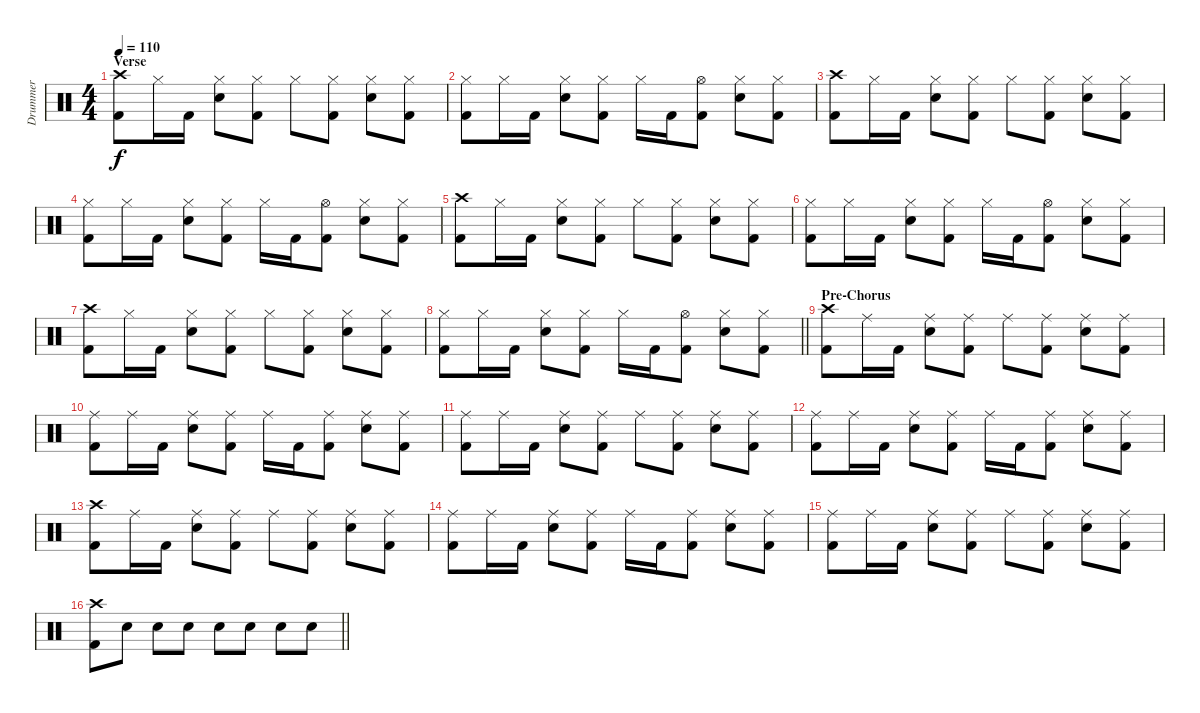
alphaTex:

\track ("Drummer" "Drummer") {instrument percussion}
\staff {score}
\articulation defaults
\ts (4 4)
\section ("" "Verse")
\tempo 110
\clef neutral
\ks c
("Crash high (hit)" "Kick (hit) 2").8{dy f} "Hi-Hat (closed)".16 "Kick (hit) 2".16 ("Hi-Hat (closed)" "Electric Snare (hit)").8 ("Hi-Hat (closed)" "Kick (hit) 2").8 "Hi-Hat (closed)".8 ("Hi-Hat (closed)" "Kick (hit) 2").8 ("Hi-Hat (closed)" "Electric Snare (hit)").8 ("Hi-Hat (closed)" "Kick (hit) 2").8 |
("Hi-Hat (closed)" "Kick (hit) 2").8 "Hi-Hat (closed)".16 "Kick (hit) 2".16 ("Hi-Hat (closed)" "Electric Snare (hit)").8 ("Hi-Hat (closed)" "Kick (hit) 2").8 "Hi-Hat (closed)".16 "Kick (hit) 2".16 ("Hi-Hat (open)" "Kick (hit) 2").8 ("Hi-Hat (closed)" "Electric Snare (hit)").8 ("Hi-Hat (closed)" "Kick (hit) 2").8 |
("Crash high (hit)" "Kick (hit) 2").8 "Hi-Hat (closed)".16 "Kick (hit) 2".16 ("Hi-Hat (closed)" "Electric Snare (hit)").8 ("Hi-Hat (closed)" "Kick (hit) 2").8 "Hi-Hat (closed)".8 ("Hi-Hat (closed)" "Kick (hit) 2").8 ("Hi-Hat (closed)" "Electric Snare (hit)").8 ("Hi-Hat (closed)" "Kick (hit) 2").8 |
("Hi-Hat (closed)" "Kick (hit) 2").8 "Hi-Hat (closed)".16 "Kick (hit) 2".16 ("Hi-Hat (closed)" "Electric Snare (hit)").8 ("Hi-Hat (closed)" "Kick (hit) 2").8 "Hi-Hat (closed)".16 "Kick (hit) 2".16 ("Hi-Hat (open)" "Kick (hit) 2").8 ("Hi-Hat (closed)" "Electric Snare (hit)").8 ("Hi-Hat (closed)" "Kick (hit) 2").8 |
("Crash high (hit)" "Kick (hit) 2").8 "Hi-Hat (closed)".16 "Kick (hit) 2".16 ("Hi-Hat (closed)" "Electric Snare (hit)").8 ("Hi-Hat (closed)" "Kick (hit) 2").8 "Hi-Hat (closed)".8 ("Hi-Hat (closed)" "Kick (hit) 2").8 ("Hi-Hat (closed)" "Electric Snare (hit)").8 ("Hi-Hat (closed)" "Kick (hit) 2").8 |
("Hi-Hat (closed)" "Kick (hit) 2").8 "Hi-Hat (closed)".16 "Kick (hit) 2".16 ("Hi-Hat (closed)" "Electric Snare (hit)").8 ("Hi-Hat (closed)" "Kick (hit) 2").8 "Hi-Hat (closed)".16 "Kick (hit) 2".16 ("Hi-Hat (open)" "Kick (hit) 2").8 ("Hi-Hat (closed)" "Electric Snare (hit)").8 ("Hi-Hat (closed)" "Kick (hit) 2").8 |
("Crash high (hit)" "Kick (hit) 2").8 "Hi-Hat (closed)".16 "Kick (hit) 2".16 ("Hi-Hat (closed)" "Electric Snare (hit)").8 ("Hi-Hat (closed)" "Kick (hit) 2").8 "Hi-Hat (closed)".8 ("Hi-Hat (closed)" "Kick (hit) 2").8 ("Hi-Hat (closed)" "Electric Snare (hit)").8 ("Hi-Hat (closed)" "Kick (hit) 2").8 |
\barLineRight lightlight
("Hi-Hat (closed)" "Kick (hit) 2").8 "Hi-Hat (closed)".16 "Kick (hit) 2".16 ("Hi-Hat (closed)" "Electric Snare (hit)").8 ("Hi-Hat (closed)" "Kick (hit) 2").8 "Hi-Hat (closed)".16 "Kick (hit) 2".16 ("Hi-Hat (open)" "Kick (hit) 2").8 ("Hi-Hat (closed)" "Electric Snare (hit)").8 ("Hi-Hat (closed)" "Kick (hit) 2").8 |
\section ("" "Pre-Chorus")
("Crash high (hit)" "Kick (hit) 2").8 "Ride (middle)".16 "Kick (hit) 2".16 ("Ride (middle)" "Electric Snare (hit)").8 ("Ride (middle)" "Kick (hit) 2").8 "Ride (middle)".8 ("Ride (middle)" "Kick (hit) 2").8 ("Ride (middle)" "Electric Snare (hit)").8 ("Ride (middle)" "Kick (hit) 2").8 |
("Ride (middle)" "Kick (hit) 2").8 "Ride (middle)".16 "Kick (hit) 2".16 ("Ride (middle)" "Electric Snare (hit)").8 ("Ride (middle)" "Kick (hit) 2").8 "Ride (middle)".16 "Kick (hit) 2".16 ("Ride (middle)" "Kick (hit) 2").8 ("Ride (middle)" "Electric Snare (hit)").8 ("Ride (middle)" "Kick (hit) 2").8 |
("Ride (middle)" "Kick (hit) 2").8 "Ride (middle)".16 "Kick (hit) 2".16 ("Ride (middle)" "Electric Snare (hit)").8 ("Ride (middle)" "Kick (hit) 2").8 "Ride (middle)".8 ("Ride (middle)" "Kick (hit) 2").8 ("Ride (middle)" "Electric Snare (hit)").8 ("Ride (middle)" "Kick (hit) 2").8 |
("Ride (middle)" "Kick (hit) 2").8 "Ride (middle)".16 "Kick (hit) 2".16 ("Ride (middle)" "Electric Snare (hit)").8 ("Ride (middle)" "Kick (hit) 2").8 "Ride (middle)".16 "Kick (hit) 2".16 ("Ride (middle)" "Kick (hit) 2").8 ("Ride (middle)" "Electric Snare (hit)").8 ("Ride (middle)" "Kick (hit) 2").8 |
("Crash high (hit)" "Kick (hit) 2").8 "Ride (middle)".16 "Kick (hit) 2".16 ("Ride (middle)" "Electric Snare (hit)").8 ("Ride (middle)" "Kick (hit) 2").8 "Ride (middle)".8 ("Ride (middle)" "Kick (hit) 2").8 ("Ride (middle)" "Electric Snare (hit)").8 ("Ride (middle)" "Kick (hit) 2").8 |
("Ride (middle)" "Kick (hit) 2").8 "Ride (middle)".16 "Kick (hit) 2".16 ("Ride (middle)" "Electric Snare (hit)").8 ("Ride (middle)" "Kick (hit) 2").8 "Ride (middle)".16 "Kick (hit) 2".16 ("Ride (middle)" "Kick (hit) 2").8 ("Ride (middle)" "Electric Snare (hit)").8 ("Ride (middle)" "Kick (hit) 2").8 |
("Ride (middle)" "Kick (hit) 2").8 "Ride (middle)".16 "Kick (hit) 2".16 ("Ride (middle)" "Electric Snare (hit)").8 ("Ride (middle)" "Kick (hit) 2").8 "Ride (middle)".8 ("Ride (middle)" "Kick (hit) 2").8 ("Ride (middle)" "Electric Snare (hit)").8 ("Ride (middle)" "Kick (hit) 2").8 |
\barLineRight lightlight
("Crash high (hit)" "Kick (hit) 2").8 "Electric Snare (hit)".8 "Electric Snare (hit)".8 "Electric Snare (hit)".8 "Electric Snare (hit)".8 "Electric Snare (hit)".8 "Electric Snare (hit)".8 "Electric Snare (hit)".8
